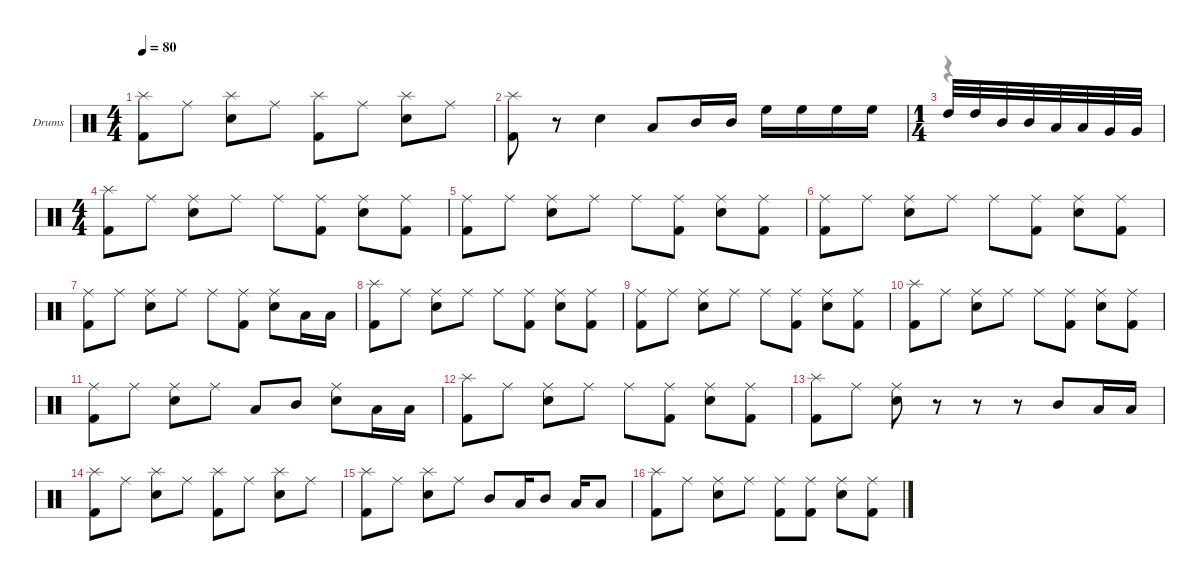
\hideDynamics
\bracketExtendMode nobrackets
\firstSystemTrackNameOrientation horizontal
\otherSystemsTrackNameOrientation horizontal
\track ("Drumkit" "Drums") {instrument percussion}
\staff {score}
\articulation defaults
\voice
\ts (4 4)
\tempo 80
\clef neutral
\ks c
("Splash (hit)" "Kick (hit) 2").8{dy f} "Ride (middle)".8 ("Splash (hit)" "Snare (hit) 2").8 "Ride (middle)".8 ("Splash (hit)" "Kick (hit) 2").8 "Ride (middle)".8 ("Splash (hit)" "Snare (hit) 2").8 "Ride (middle)".8 |
("Splash (hit)" "Kick (hit) 2").8 r.8 "Snare (hit) 2".4 "Low Tom (hit)".8 "Mid Tom (hit)".16 "Mid Tom (hit)".16 "High Floor Tom (hit)".16 "High Floor Tom (hit)".16 "High Floor Tom (hit)".16 "High Floor Tom (hit)".16 |
\ts (1 4)
\beaming (8 2)
"High Tom (hit)".32 "High Tom (hit)".32 "Mid Tom (hit)".32 "Mid Tom (hit)".32 "Low Tom (hit)".32 "Low Tom (hit)".32 "Very Low Tom (hit)".32 "Very Low Tom (hit)".32 |
\ts (4 4)
\beaming (8 2 2 2 2)
("Splash (hit)" "Kick (hit) 2").8 "Ride (middle)".8 ("Ride (middle)" "Snare (hit) 2").8 "Ride (middle)".8 "Ride (middle)".8 ("Ride (middle)" "Kick (hit) 2").8 ("Ride (middle)" "Snare (hit) 2").8 ("Ride (middle)" "Kick (hit) 2").8 |
("Ride (middle)" "Kick (hit) 2").8 "Ride (middle)".8 ("Ride (middle)" "Snare (hit) 2").8 "Ride (middle)".8 "Ride (middle)".8 ("Ride (middle)" "Kick (hit) 2").8 ("Ride (middle)" "Snare (hit) 2").8 ("Ride (middle)" "Kick (hit) 2").8 |
("Ride (middle)" "Kick (hit) 2").8 "Ride (middle)".8 ("Ride (middle)" "Snare (hit) 2").8 "Ride (middle)".8 "Ride (middle)".8 ("Ride (middle)" "Kick (hit) 2").8 ("Ride (middle)" "Snare (hit) 2").8 ("Ride (middle)" "Kick (hit) 2").8 |
("Ride (middle)" "Kick (hit) 2").8 "Ride (middle)".8 ("Ride (middle)" "Snare (hit) 2").8 "Ride (middle)".8 "Ride (middle)".8 ("Ride (middle)" "Kick (hit) 2").8 ("Ride (middle)" "Snare (hit) 2").8 "Low Tom (hit)".16 "Low Tom (hit)".16 |
("Splash (hit)" "Kick (hit) 2").8 "Ride (middle)".8 ("Ride (middle)" "Snare (hit) 2").8 "Ride (middle)".8 "Ride (middle)".8 ("Ride (middle)" "Kick (hit) 2").8 ("Ride (middle)" "Snare (hit) 2").8 ("Ride (middle)" "Kick (hit) 2").8 |
("Ride (middle)" "Kick (hit) 2").8 "Ride (middle)".8 ("Ride (middle)" "Snare (hit) 2").8 "Ride (middle)".8 "Ride (middle)".8 ("Ride (middle)" "Kick (hit) 2").8 ("Ride (middle)" "Snare (hit) 2").8 ("Ride (middle)" "Kick (hit) 2").8 |
("Splash (hit)" "Kick (hit) 2").8 "Ride (middle)".8 ("Ride (middle)" "Snare (hit) 2").8 "Ride (middle)".8 "Ride (middle)".8 ("Ride (middle)" "Kick (hit) 2").8 ("Ride (middle)" "Snare (hit) 2").8 ("Ride (middle)" "Kick (hit) 2").8 |
("Ride (middle)" "Kick (hit) 2").8 "Ride (middle)".8 ("Ride (middle)" "Snare (hit) 2").8 "Ride (middle)".8 "Low Tom (hit)".8 "Mid Tom (hit)".8 ("Ride (middle)" "Snare (hit) 2").8 "Low Tom (hit)".16 "Low Tom (hit)".16 |
("Splash (hit)" "Kick (hit) 2").8 "Ride (middle)".8 ("Ride (middle)" "Snare (hit) 2").8 "Ride (middle)".8 "Ride (middle)".8 ("Ride (middle)" "Kick (hit) 2").8 ("Ride (middle)" "Snare (hit) 2").8 ("Ride (middle)" "Kick (hit) 2").8 |
("Splash (hit)" "Kick (hit) 2").8 "Ride (middle)".8 ("Ride (middle)" "Snare (hit) 2").8 r.8 r.8 r.8 "Mid Tom (hit)".8 "Low Tom (hit)".16 "Low Tom (hit)".16 |
("Splash (hit)" "Kick (hit) 2").8 "Ride (middle)".8 ("Splash (hit)" "Snare (hit) 2").8 "Ride (middle)".8 ("Splash (hit)" "Kick (hit) 2").8 "Ride (middle)".8 ("Splash (hit)" "Snare (hit) 2").8 "Ride (middle)".8 |
("Splash (hit)" "Kick (hit) 2").8 "Ride (middle)".8 ("Splash (hit)" "Snare (hit) 2").8 "Ride (middle)".8 "Mid Tom (hit)".8 "Low Tom (hit)".16 "Mid Tom (hit)".8 "Low Tom (hit)".16 "Low Tom (hit)".8 |
("Splash (hit)" "Kick (hit) 2").8 "Ride (middle)".8 ("Ride (middle)" "Snare (hit) 2").8 "Ride (middle)".8 ("Ride (middle)" "Kick (hit) 2").8 ("Ride (middle)" "Kick (hit) 2").8 ("Ride (middle)" "Snare (hit) 2").8 ("Ride (middle)" "Kick (hit) 2").8
\voice
\clef neutral
\ottava regular
\simile none
\ks c
|
|
r.4{dy mf} |
|
|
|
|
|
|
|
|
|
|
|
|
